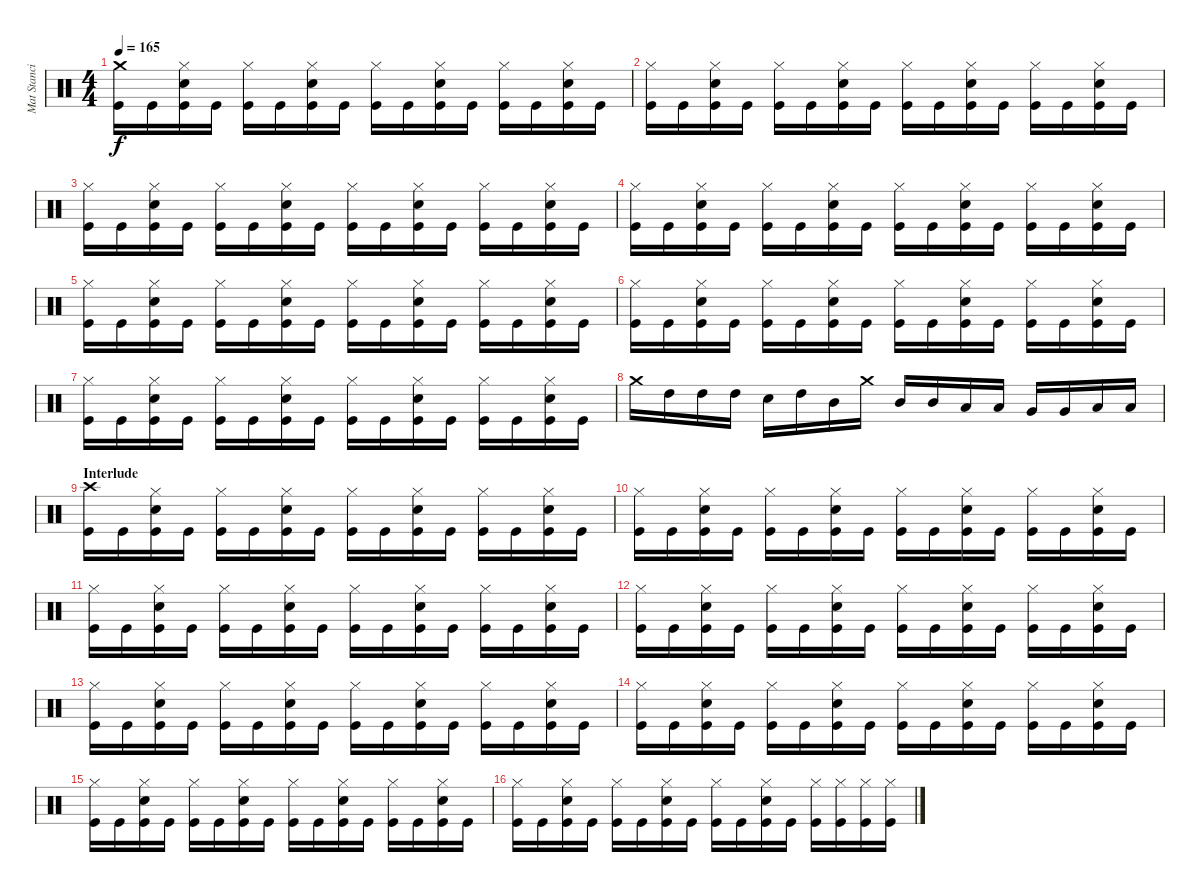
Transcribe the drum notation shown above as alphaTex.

\track ("Mat Stancioiu (Drums)" "Mat Stanci") {instrument percussion}
\staff {score}
\articulation defaults
\ts (4 4)
\tempo 165
\clef neutral
\ks c
("Crash medium (hit)" "Kick (hit)").16{dy f} "Kick (hit)".16 ("Hi-Hat (closed)" "Electric Snare (hit)" "Kick (hit)").16 "Kick (hit)".16 ("Hi-Hat (closed)" "Kick (hit)").16 "Kick (hit)".16 ("Hi-Hat (closed)" "Electric Snare (hit)" "Kick (hit)").16 "Kick (hit)".16 ("Hi-Hat (closed)" "Kick (hit)").16 "Kick (hit)".16 ("Hi-Hat (closed)" "Electric Snare (hit)" "Kick (hit)").16 "Kick (hit)".16 ("Hi-Hat (closed)" "Kick (hit)").16 "Kick (hit)".16 ("Hi-Hat (closed)" "Electric Snare (hit)" "Kick (hit)").16 "Kick (hit)".16 |
("Hi-Hat (closed)" "Kick (hit)").16 "Kick (hit)".16 ("Hi-Hat (closed)" "Electric Snare (hit)" "Kick (hit)").16 "Kick (hit)".16 ("Hi-Hat (closed)" "Kick (hit)").16 "Kick (hit)".16 ("Hi-Hat (closed)" "Electric Snare (hit)" "Kick (hit)").16 "Kick (hit)".16 ("Hi-Hat (closed)" "Kick (hit)").16 "Kick (hit)".16 ("Hi-Hat (closed)" "Electric Snare (hit)" "Kick (hit)").16 "Kick (hit)".16 ("Hi-Hat (closed)" "Kick (hit)").16 "Kick (hit)".16 ("Hi-Hat (closed)" "Electric Snare (hit)" "Kick (hit)").16 "Kick (hit)".16 |
("Hi-Hat (closed)" "Kick (hit)").16 "Kick (hit)".16 ("Hi-Hat (closed)" "Electric Snare (hit)" "Kick (hit)").16 "Kick (hit)".16 ("Hi-Hat (closed)" "Kick (hit)").16 "Kick (hit)".16 ("Hi-Hat (closed)" "Electric Snare (hit)" "Kick (hit)").16 "Kick (hit)".16 ("Hi-Hat (closed)" "Kick (hit)").16 "Kick (hit)".16 ("Hi-Hat (closed)" "Electric Snare (hit)" "Kick (hit)").16 "Kick (hit)".16 ("Hi-Hat (closed)" "Kick (hit)").16 "Kick (hit)".16 ("Hi-Hat (closed)" "Electric Snare (hit)" "Kick (hit)").16 "Kick (hit)".16 |
("Hi-Hat (closed)" "Kick (hit)").16 "Kick (hit)".16 ("Hi-Hat (closed)" "Electric Snare (hit)" "Kick (hit)").16 "Kick (hit)".16 ("Hi-Hat (closed)" "Kick (hit)").16 "Kick (hit)".16 ("Hi-Hat (closed)" "Electric Snare (hit)" "Kick (hit)").16 "Kick (hit)".16 ("Hi-Hat (closed)" "Kick (hit)").16 "Kick (hit)".16 ("Hi-Hat (closed)" "Electric Snare (hit)" "Kick (hit)").16 "Kick (hit)".16 ("Hi-Hat (closed)" "Kick (hit)").16 "Kick (hit)".16 ("Hi-Hat (closed)" "Electric Snare (hit)" "Kick (hit)").16 "Kick (hit)".16 |
("Hi-Hat (closed)" "Kick (hit)").16 "Kick (hit)".16 ("Hi-Hat (closed)" "Electric Snare (hit)" "Kick (hit)").16 "Kick (hit)".16 ("Hi-Hat (closed)" "Kick (hit)").16 "Kick (hit)".16 ("Hi-Hat (closed)" "Electric Snare (hit)" "Kick (hit)").16 "Kick (hit)".16 ("Hi-Hat (closed)" "Kick (hit)").16 "Kick (hit)".16 ("Hi-Hat (closed)" "Electric Snare (hit)" "Kick (hit)").16 "Kick (hit)".16 ("Hi-Hat (closed)" "Kick (hit)").16 "Kick (hit)".16 ("Hi-Hat (closed)" "Electric Snare (hit)" "Kick (hit)").16 "Kick (hit)".16 |
("Hi-Hat (closed)" "Kick (hit)").16 "Kick (hit)".16 ("Hi-Hat (closed)" "Electric Snare (hit)" "Kick (hit)").16 "Kick (hit)".16 ("Hi-Hat (closed)" "Kick (hit)").16 "Kick (hit)".16 ("Hi-Hat (closed)" "Electric Snare (hit)" "Kick (hit)").16 "Kick (hit)".16 ("Hi-Hat (closed)" "Kick (hit)").16 "Kick (hit)".16 ("Hi-Hat (closed)" "Electric Snare (hit)" "Kick (hit)").16 "Kick (hit)".16 ("Hi-Hat (closed)" "Kick (hit)").16 "Kick (hit)".16 ("Hi-Hat (closed)" "Electric Snare (hit)" "Kick (hit)").16 "Kick (hit)".16 |
("Hi-Hat (closed)" "Kick (hit)").16 "Kick (hit)".16 ("Hi-Hat (closed)" "Electric Snare (hit)" "Kick (hit)").16 "Kick (hit)".16 ("Hi-Hat (closed)" "Kick (hit)").16 "Kick (hit)".16 ("Hi-Hat (closed)" "Electric Snare (hit)" "Kick (hit)").16 "Kick (hit)".16 ("Hi-Hat (closed)" "Kick (hit)").16 "Kick (hit)".16 ("Hi-Hat (closed)" "Electric Snare (hit)" "Kick (hit)").16 "Kick (hit)".16 ("Hi-Hat (closed)" "Kick (hit)").16 "Kick (hit)".16 ("Hi-Hat (closed)" "Electric Snare (hit)" "Kick (hit)").16 "Kick (hit)".16 |
"Crash medium (hit)".16 "High Tom (hit)".16 "High Tom (hit)".16 "High Tom (hit)".16 "Electric Snare (hit)".16 "High Tom (hit)".16 "Mid Tom (hit)".16 "Crash medium (hit)".16 "Mid Tom (hit)".16 "Mid Tom (hit)".16 "Low Tom (hit)".16 "Low Tom (hit)".16 "Very Low Tom (hit)".16 "Very Low Tom (hit)".16 "Low Floor Tom (hit)".16 "Low Floor Tom (hit)".16 |
\section ("" "Interlude")
("Crash high (hit)" "Kick (hit)").16 "Kick (hit)".16 ("Hi-Hat (closed)" "Electric Snare (hit)" "Kick (hit)").16 "Kick (hit)".16 ("Hi-Hat (closed)" "Kick (hit)").16 "Kick (hit)".16 ("Hi-Hat (closed)" "Electric Snare (hit)" "Kick (hit)").16 "Kick (hit)".16 ("Hi-Hat (closed)" "Kick (hit)").16 "Kick (hit)".16 ("Hi-Hat (closed)" "Electric Snare (hit)" "Kick (hit)").16 "Kick (hit)".16 ("Hi-Hat (closed)" "Kick (hit)").16 "Kick (hit)".16 ("Hi-Hat (closed)" "Electric Snare (hit)" "Kick (hit)").16 "Kick (hit)".16 |
("Hi-Hat (closed)" "Kick (hit)").16 "Kick (hit)".16 ("Hi-Hat (closed)" "Electric Snare (hit)" "Kick (hit)").16 "Kick (hit)".16 ("Hi-Hat (closed)" "Kick (hit)").16 "Kick (hit)".16 ("Hi-Hat (closed)" "Electric Snare (hit)" "Kick (hit)").16 "Kick (hit)".16 ("Hi-Hat (closed)" "Kick (hit)").16 "Kick (hit)".16 ("Hi-Hat (closed)" "Electric Snare (hit)" "Kick (hit)").16 "Kick (hit)".16 ("Hi-Hat (closed)" "Kick (hit)").16 "Kick (hit)".16 ("Hi-Hat (closed)" "Electric Snare (hit)" "Kick (hit)").16 "Kick (hit)".16 |
("Hi-Hat (closed)" "Kick (hit)").16 "Kick (hit)".16 ("Hi-Hat (closed)" "Electric Snare (hit)" "Kick (hit)").16 "Kick (hit)".16 ("Hi-Hat (closed)" "Kick (hit)").16 "Kick (hit)".16 ("Hi-Hat (closed)" "Electric Snare (hit)" "Kick (hit)").16 "Kick (hit)".16 ("Hi-Hat (closed)" "Kick (hit)").16 "Kick (hit)".16 ("Hi-Hat (closed)" "Electric Snare (hit)" "Kick (hit)").16 "Kick (hit)".16 ("Hi-Hat (closed)" "Kick (hit)").16 "Kick (hit)".16 ("Hi-Hat (closed)" "Electric Snare (hit)" "Kick (hit)").16 "Kick (hit)".16 |
("Hi-Hat (closed)" "Kick (hit)").16 "Kick (hit)".16 ("Hi-Hat (closed)" "Electric Snare (hit)" "Kick (hit)").16 "Kick (hit)".16 ("Hi-Hat (closed)" "Kick (hit)").16 "Kick (hit)".16 ("Hi-Hat (closed)" "Electric Snare (hit)" "Kick (hit)").16 "Kick (hit)".16 ("Hi-Hat (closed)" "Kick (hit)").16 "Kick (hit)".16 ("Hi-Hat (closed)" "Electric Snare (hit)" "Kick (hit)").16 "Kick (hit)".16 ("Hi-Hat (closed)" "Kick (hit)").16 "Kick (hit)".16 ("Hi-Hat (closed)" "Electric Snare (hit)" "Kick (hit)").16 "Kick (hit)".16 |
("Hi-Hat (closed)" "Kick (hit)").16 "Kick (hit)".16 ("Hi-Hat (closed)" "Electric Snare (hit)" "Kick (hit)").16 "Kick (hit)".16 ("Hi-Hat (closed)" "Kick (hit)").16 "Kick (hit)".16 ("Hi-Hat (closed)" "Electric Snare (hit)" "Kick (hit)").16 "Kick (hit)".16 ("Hi-Hat (closed)" "Kick (hit)").16 "Kick (hit)".16 ("Hi-Hat (closed)" "Electric Snare (hit)" "Kick (hit)").16 "Kick (hit)".16 ("Hi-Hat (closed)" "Kick (hit)").16 "Kick (hit)".16 ("Hi-Hat (closed)" "Electric Snare (hit)" "Kick (hit)").16 "Kick (hit)".16 |
("Hi-Hat (closed)" "Kick (hit)").16 "Kick (hit)".16 ("Hi-Hat (closed)" "Electric Snare (hit)" "Kick (hit)").16 "Kick (hit)".16 ("Hi-Hat (closed)" "Kick (hit)").16 "Kick (hit)".16 ("Hi-Hat (closed)" "Electric Snare (hit)" "Kick (hit)").16 "Kick (hit)".16 ("Hi-Hat (closed)" "Kick (hit)").16 "Kick (hit)".16 ("Hi-Hat (closed)" "Electric Snare (hit)" "Kick (hit)").16 "Kick (hit)".16 ("Hi-Hat (closed)" "Kick (hit)").16 "Kick (hit)".16 ("Hi-Hat (closed)" "Electric Snare (hit)" "Kick (hit)").16 "Kick (hit)".16 |
("Hi-Hat (closed)" "Kick (hit)").16 "Kick (hit)".16 ("Hi-Hat (closed)" "Electric Snare (hit)" "Kick (hit)").16 "Kick (hit)".16 ("Hi-Hat (closed)" "Kick (hit)").16 "Kick (hit)".16 ("Hi-Hat (closed)" "Electric Snare (hit)" "Kick (hit)").16 "Kick (hit)".16 ("Hi-Hat (closed)" "Kick (hit)").16 "Kick (hit)".16 ("Hi-Hat (closed)" "Electric Snare (hit)" "Kick (hit)").16 "Kick (hit)".16 ("Hi-Hat (closed)" "Kick (hit)").16 "Kick (hit)".16 ("Hi-Hat (closed)" "Electric Snare (hit)" "Kick (hit)").16 "Kick (hit)".16 |
("Hi-Hat (closed)" "Kick (hit)").16 "Kick (hit)".16 ("Hi-Hat (closed)" "Electric Snare (hit)" "Kick (hit)").16 "Kick (hit)".16 ("Hi-Hat (closed)" "Kick (hit)").16 "Kick (hit)".16 ("Hi-Hat (closed)" "Electric Snare (hit)" "Kick (hit)").16 "Kick (hit)".16 ("Hi-Hat (closed)" "Kick (hit)").16 "Kick (hit)".16 ("Hi-Hat (closed)" "Electric Snare (hit)" "Kick (hit)").16 "Kick (hit)".16 ("Hi-Hat (closed)" "Kick (hit)").16 ("Hi-Hat (closed)" "Kick (hit)").16 ("Hi-Hat (closed)" "Kick (hit)").16 ("Hi-Hat (closed)" "Kick (hit)").16
